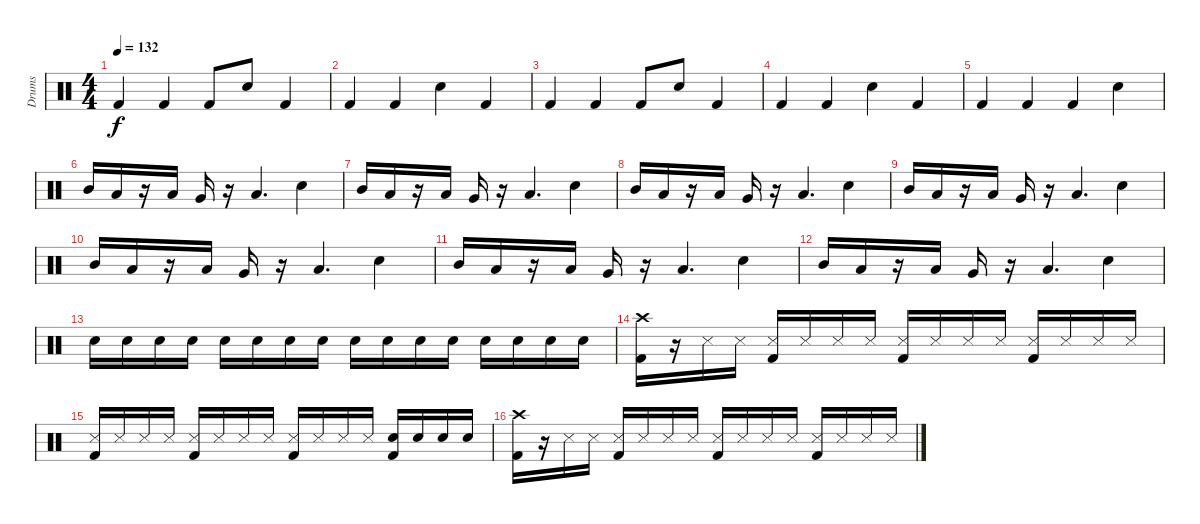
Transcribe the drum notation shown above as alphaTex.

\track ("Drums" "Drums") {instrument percussion}
\staff {score}
\articulation defaults
\ts (4 4)
\tempo 132
\clef neutral
\ks c "Kick (hit) 2".4{dy f} "Kick (hit) 2".4 "Kick (hit) 2".8 "Electric Snare (hit)".8 "Kick (hit) 2".4
|
"Kick (hit) 2".4 "Kick (hit) 2".4 "Electric Snare (hit)".4 "Kick (hit) 2".4 |
"Kick (hit) 2".4 "Kick (hit) 2".4 "Kick (hit) 2".8 "Electric Snare (hit)".8 "Kick (hit) 2".4 |
"Kick (hit) 2".4 "Kick (hit) 2".4 "Electric Snare (hit)".4 "Kick (hit) 2".4 |
"Kick (hit) 2".4 "Kick (hit) 2".4 "Kick (hit) 2".4 "Electric Snare (hit)".4 |
"Mid Tom (hit)".16 "Low Tom (hit)".16 r.16 "Low Tom (hit)".16 "Very Low Tom (hit)".16 r.16 "Low Floor Tom (hit)".4{d} "Electric Snare (hit)".4 |
"Mid Tom (hit)".16 "Low Tom (hit)".16 r.16 "Low Tom (hit)".16 "Very Low Tom (hit)".16 r.16 "Low Floor Tom (hit)".4{d} "Electric Snare (hit)".4 |
"Mid Tom (hit)".16 "Low Tom (hit)".16 r.16 "Low Tom (hit)".16 "Very Low Tom (hit)".16 r.16 "Low Floor Tom (hit)".4{d} "Electric Snare (hit)".4 |
"Mid Tom (hit)".16 "Low Tom (hit)".16 r.16 "Low Tom (hit)".16 "Very Low Tom (hit)".16 r.16 "Low Floor Tom (hit)".4{d} "Electric Snare (hit)".4 |
"Mid Tom (hit)".16 "Low Tom (hit)".16 r.16 "Low Tom (hit)".16 "Very Low Tom (hit)".16 r.16 "Low Floor Tom (hit)".4{d} "Electric Snare (hit)".4 |
"Mid Tom (hit)".16 "Low Tom (hit)".16 r.16 "Low Tom (hit)".16 "Very Low Tom (hit)".16 r.16 "Low Floor Tom (hit)".4{d} "Electric Snare (hit)".4 |
"Mid Tom (hit)".16 "Low Tom (hit)".16 r.16 "Low Tom (hit)".16 "Very Low Tom (hit)".16 r.16 "Low Floor Tom (hit)".4{d} "Electric Snare (hit)".4 |
"Electric Snare (hit)".16 "Electric Snare (hit)".16 "Electric Snare (hit)".16 "Electric Snare (hit)".16 "Electric Snare (hit)".16 "Electric Snare (hit)".16 "Electric Snare (hit)".16 "Electric Snare (hit)".16 "Electric Snare (hit)".16 "Electric Snare (hit)".16 "Electric Snare (hit)".16 "Electric Snare (hit)".16 "Electric Snare (hit)".16 "Electric Snare (hit)".16 "Electric Snare (hit)".16 "Electric Snare (hit)".16 |
("Crash high (hit)" "Kick (hit) 2").16 r.16 "Snare (side stick) 3".16 "Snare (side stick) 3".16 ("Snare (side stick) 3" "Kick (hit) 2").16 "Snare (side stick) 3".16 "Snare (side stick) 3".16 "Snare (side stick) 3".16 ("Snare (side stick) 3" "Kick (hit) 2").16 "Snare (side stick) 3".16 "Snare (side stick) 3".16 "Snare (side stick) 3".16 ("Snare (side stick) 3" "Kick (hit) 2").16 "Snare (side stick) 3".16 "Snare (side stick) 3".16 "Snare (side stick) 3".16 |
("Snare (side stick) 3" "Kick (hit) 2").16 "Snare (side stick) 3".16 "Snare (side stick) 3".16 "Snare (side stick) 3".16 ("Snare (side stick) 3" "Kick (hit) 2").16 "Snare (side stick) 3".16 "Snare (side stick) 3".16 "Snare (side stick) 3".16 ("Snare (side stick) 3" "Kick (hit) 2").16 "Snare (side stick) 3".16 "Snare (side stick) 3".16 "Snare (side stick) 3".16 ("Electric Snare (hit)" "Kick (hit) 2").16 "Electric Snare (hit)".16 "Electric Snare (hit)".16 "Electric Snare (hit)".16 |
("Crash high (hit)" "Kick (hit) 2").16 r.16 "Snare (side stick) 3".16 "Snare (side stick) 3".16 ("Snare (side stick) 3" "Kick (hit) 2").16 "Snare (side stick) 3".16 "Snare (side stick) 3".16 "Snare (side stick) 3".16 ("Snare (side stick) 3" "Kick (hit) 2").16 "Snare (side stick) 3".16 "Snare (side stick) 3".16 "Snare (side stick) 3".16 ("Snare (side stick) 3" "Kick (hit) 2").16 "Snare (side stick) 3".16 "Snare (side stick) 3".16 "Snare (side stick) 3".16
